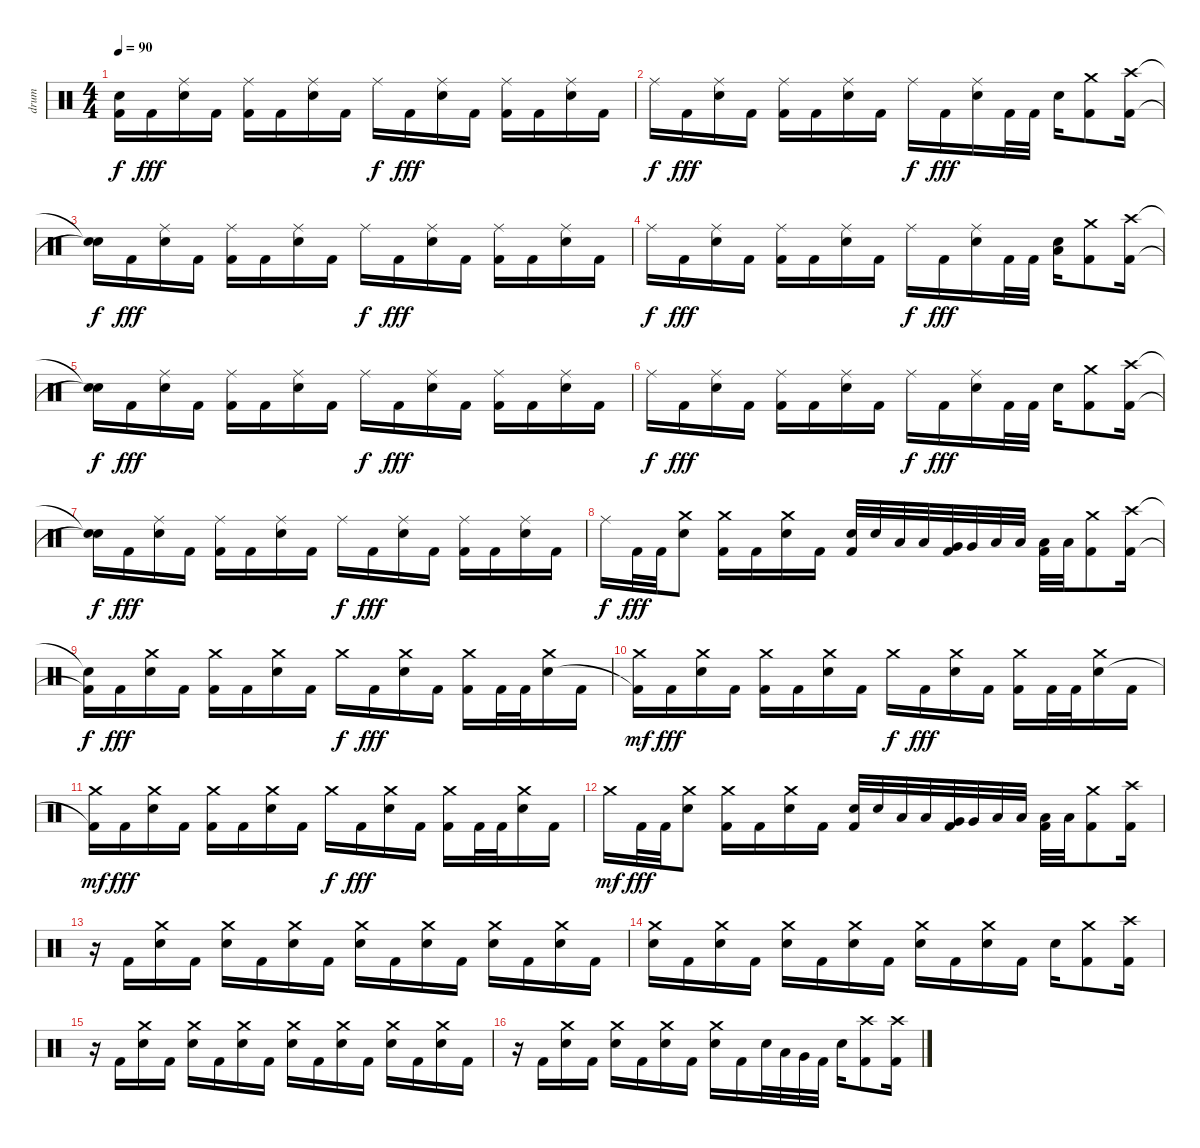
\track ("drum" "drum") {instrument percussion}
\staff {score}
\articulation defaults
\ts (4 4)
\tempo 90
\clef neutral
\ks c
("Snare (hit)"{t} "Kick (hit) 2"{t}).16{dy f} "Kick (hit) 2".16{dy fff} ("Ride (middle)" "Electric Snare (hit)").16 "Kick (hit) 2".16 ("Ride (middle)" "Kick (hit) 2").16 "Kick (hit) 2".16 ("Ride (middle)" "Electric Snare (hit)").16 "Kick (hit) 2".16 "Ride (middle)".16{dy f} "Kick (hit) 2".16{dy fff} ("Ride (middle)" "Electric Snare (hit)").16 "Kick (hit) 2".16 ("Ride (middle)" "Kick (hit) 2").16 "Kick (hit) 2".16 ("Ride (middle)" "Electric Snare (hit)").16 "Kick (hit) 2".16 |
"Ride (middle)".16{dy f} "Kick (hit) 2".16{dy fff} ("Ride (middle)" "Electric Snare (hit)").16 "Kick (hit) 2".16 ("Ride (middle)" "Kick (hit) 2").16 "Kick (hit) 2".16 ("Ride (middle)" "Electric Snare (hit)").16 "Kick (hit) 2".16 "Ride (middle)".16{dy f} "Kick (hit) 2".16{dy fff} ("Ride (middle)" "Electric Snare (hit)").16 "Kick (hit) 2".32 "Kick (hit) 2".32 "Electric Snare (hit)".16 ("Crash medium (hit)" "Kick (hit) 2").8 ("Crash high (hit)" "Kick (hit) 2").16 |
("Snare (hit)"{t} "Snare (hit)"{t}).16{dy f} "Kick (hit) 2".16{dy fff} ("Ride (middle)" "Electric Snare (hit)").16 "Kick (hit) 2".16 ("Ride (middle)" "Kick (hit) 2").16 "Kick (hit) 2".16 ("Ride (middle)" "Electric Snare (hit)").16 "Kick (hit) 2".16 "Ride (middle)".16{dy f} "Kick (hit) 2".16{dy fff} ("Ride (middle)" "Electric Snare (hit)").16 "Kick (hit) 2".16 ("Ride (middle)" "Kick (hit) 2").16 "Kick (hit) 2".16 ("Ride (middle)" "Electric Snare (hit)").16 "Kick (hit) 2".16 |
"Ride (middle)".16{dy f} "Kick (hit) 2".16{dy fff} ("Ride (middle)" "Electric Snare (hit)").16 "Kick (hit) 2".16 ("Ride (middle)" "Kick (hit) 2").16 "Kick (hit) 2".16 ("Ride (middle)" "Electric Snare (hit)").16 "Kick (hit) 2".16 "Ride (middle)".16{dy f} "Kick (hit) 2".16{dy fff} ("Ride (middle)" "Electric Snare (hit)").16 "Kick (hit) 2".32 "Kick (hit) 2".32 ("Electric Snare (hit)" "Low Floor Tom (hit)").16 ("Crash medium (hit)" "Kick (hit) 2").8 ("Crash high (hit)" "Kick (hit) 2").16 |
("Snare (hit)"{t} "Snare (hit)"{t}).16{dy f} "Kick (hit) 2".16{dy fff} ("Ride (middle)" "Electric Snare (hit)").16 "Kick (hit) 2".16 ("Ride (middle)" "Kick (hit) 2").16 "Kick (hit) 2".16 ("Ride (middle)" "Electric Snare (hit)").16 "Kick (hit) 2".16 "Ride (middle)".16{dy f} "Kick (hit) 2".16{dy fff} ("Ride (middle)" "Electric Snare (hit)").16 "Kick (hit) 2".16 ("Ride (middle)" "Kick (hit) 2").16 "Kick (hit) 2".16 ("Ride (middle)" "Electric Snare (hit)").16 "Kick (hit) 2".16 |
"Ride (middle)".16{dy f} "Kick (hit) 2".16{dy fff} ("Ride (middle)" "Electric Snare (hit)").16 "Kick (hit) 2".16 ("Ride (middle)" "Kick (hit) 2").16 "Kick (hit) 2".16 ("Ride (middle)" "Electric Snare (hit)").16 "Kick (hit) 2".16 "Ride (middle)".16{dy f} "Kick (hit) 2".16{dy fff} ("Ride (middle)" "Electric Snare (hit)").16 "Kick (hit) 2".32 "Kick (hit) 2".32 "Electric Snare (hit)".16 ("Crash medium (hit)" "Kick (hit) 2").8 ("Crash high (hit)" "Kick (hit) 2").16 |
("Snare (hit)"{t} "Snare (hit)"{t}).16{dy f} "Kick (hit) 2".16{dy fff} ("Ride (middle)" "Electric Snare (hit)").16 "Kick (hit) 2".16 ("Ride (middle)" "Kick (hit) 2").16 "Kick (hit) 2".16 ("Ride (middle)" "Electric Snare (hit)").16 "Kick (hit) 2".16 "Ride (middle)".16{dy f} "Kick (hit) 2".16{dy fff} ("Ride (middle)" "Electric Snare (hit)").16 "Kick (hit) 2".16 ("Ride (middle)" "Kick (hit) 2").16 "Kick (hit) 2".16 ("Ride (middle)" "Electric Snare (hit)").16 "Kick (hit) 2".16 |
"Ride (middle)".16{dy f} "Kick (hit) 2".32{dy fff} "Kick (hit) 2".32 ("Crash medium (hit)" "Electric Snare (hit)").8 ("Crash medium (hit)" "Kick (hit) 2").16 "Kick (hit) 2".16 ("Crash medium (hit)" "Electric Snare (hit)").16 "Kick (hit) 2".16 ("Electric Snare (hit)" "Kick (hit) 2").32 "Electric Snare (hit)".32 "Low Tom (hit)".32 "Low Tom (hit)".32 ("Very Low Tom (hit)" "Kick (hit) 2").32 "Very Low Tom (hit)".32 "Low Floor Tom (hit)".32 "Low Floor Tom (hit)".32 ("Low Floor Tom (hit)" "Kick (hit) 2").32 "Low Floor Tom (hit)".32 ("Crash medium (hit)" "Kick (hit) 2").8 ("Crash high (hit)" "Kick (hit) 2").16 |
("Snare (hit)"{t} "Kick (hit) 2"{t}).16{dy f} "Kick (hit) 2".16{dy fff} ("Crash medium (hit)" "Electric Snare (hit)").16 "Kick (hit) 2".16 ("Crash medium (hit)" "Kick (hit) 2").16 "Kick (hit) 2".16 ("Crash medium (hit)" "Electric Snare (hit)").16 "Kick (hit) 2".16 "Crash medium (hit)".16{dy f} "Kick (hit) 2".16{dy fff} ("Crash medium (hit)" "Electric Snare (hit)").16 "Kick (hit) 2".16 ("Crash medium (hit)" "Kick (hit) 2").16 "Kick (hit) 2".32 "Kick (hit) 2".32 ("Crash medium (hit)" "Electric Snare (hit)").16 "Kick (hit) 2".16 |
("Crash medium (hit)" "Kick (hit) 2"{t}).16{dy mf} "Kick (hit) 2".16{dy fff} ("Crash medium (hit)" "Electric Snare (hit)").16 "Kick (hit) 2".16 ("Crash medium (hit)" "Kick (hit) 2").16 "Kick (hit) 2".16 ("Crash medium (hit)" "Electric Snare (hit)").16 "Kick (hit) 2".16 "Crash medium (hit)".16{dy f} "Kick (hit) 2".16{dy fff} ("Crash medium (hit)" "Electric Snare (hit)").16 "Kick (hit) 2".16 ("Crash medium (hit)" "Kick (hit) 2").16 "Kick (hit) 2".32 "Kick (hit) 2".32 ("Crash medium (hit)" "Electric Snare (hit)").16 "Kick (hit) 2".16 |
("Crash medium (hit)" "Kick (hit) 2"{t}).16{dy mf} "Kick (hit) 2".16{dy fff} ("Crash medium (hit)" "Electric Snare (hit)").16 "Kick (hit) 2".16 ("Crash medium (hit)" "Kick (hit) 2").16 "Kick (hit) 2".16 ("Crash medium (hit)" "Electric Snare (hit)").16 "Kick (hit) 2".16 "Crash medium (hit)".16{dy f} "Kick (hit) 2".16{dy fff} ("Crash medium (hit)" "Electric Snare (hit)").16 "Kick (hit) 2".16 ("Crash medium (hit)" "Kick (hit) 2").16 "Kick (hit) 2".32 "Kick (hit) 2".32 ("Crash medium (hit)" "Electric Snare (hit)").16 "Kick (hit) 2".16 |
"Crash medium (hit)".16{dy mf} "Kick (hit) 2".32{dy fff} "Kick (hit) 2".32 ("Crash medium (hit)" "Electric Snare (hit)").8 ("Crash medium (hit)" "Kick (hit) 2").16 "Kick (hit) 2".16 ("Crash medium (hit)" "Electric Snare (hit)").16 "Kick (hit) 2".16 ("Electric Snare (hit)" "Kick (hit) 2").32 "Electric Snare (hit)".32 "Low Tom (hit)".32 "Low Tom (hit)".32 ("Very Low Tom (hit)" "Kick (hit) 2").32 "Very Low Tom (hit)".32 "Low Floor Tom (hit)".32 "Low Floor Tom (hit)".32 ("Low Floor Tom (hit)" "Kick (hit) 2").32 "Low Floor Tom (hit)".32 ("Crash medium (hit)" "Kick (hit) 2").8 ("Crash high (hit)" "Kick (hit) 2").16 |
r.16 "Kick (hit) 2".16 ("Crash medium (hit)" "Electric Snare (hit)").16 "Kick (hit) 2".16 ("Crash medium (hit)" "Electric Snare (hit)").16 "Kick (hit) 2".16 ("Crash medium (hit)" "Electric Snare (hit)").16 "Kick (hit) 2".16 ("Crash medium (hit)" "Electric Snare (hit)").16 "Kick (hit) 2".16 ("Crash medium (hit)" "Electric Snare (hit)").16 "Kick (hit) 2".16 ("Crash medium (hit)" "Electric Snare (hit)").16 "Kick (hit) 2".16 ("Crash medium (hit)" "Electric Snare (hit)").16 "Kick (hit) 2".16 |
("Crash medium (hit)" "Electric Snare (hit)").16 "Kick (hit) 2".16 ("Crash medium (hit)" "Electric Snare (hit)").16 "Kick (hit) 2".16 ("Crash medium (hit)" "Electric Snare (hit)").16 "Kick (hit) 2".16 ("Crash medium (hit)" "Electric Snare (hit)").16 "Kick (hit) 2".16 ("Crash medium (hit)" "Electric Snare (hit)").16 "Kick (hit) 2".16 ("Crash medium (hit)" "Electric Snare (hit)").16 "Kick (hit) 2".16 "Electric Snare (hit)".16 ("Crash medium (hit)" "Kick (hit) 2").8 ("Crash high (hit)" "Kick (hit) 2").16 |
r.16 "Kick (hit) 2".16 ("Crash medium (hit)" "Electric Snare (hit)").16 "Kick (hit) 2".16 ("Crash medium (hit)" "Electric Snare (hit)").16 "Kick (hit) 2".16 ("Crash medium (hit)" "Electric Snare (hit)").16 "Kick (hit) 2".16 ("Crash medium (hit)" "Electric Snare (hit)").16 "Kick (hit) 2".16 ("Crash medium (hit)" "Electric Snare (hit)").16 "Kick (hit) 2".16 ("Crash medium (hit)" "Electric Snare (hit)").16 "Kick (hit) 2".16 ("Crash medium (hit)" "Electric Snare (hit)").16 "Kick (hit) 2".16 |
r.16 "Kick (hit) 2".16 ("Crash medium (hit)" "Electric Snare (hit)").16 "Kick (hit) 2".16 ("Crash medium (hit)" "Electric Snare (hit)").16 "Kick (hit) 2".16 ("Crash medium (hit)" "Electric Snare (hit)").16 "Kick (hit) 2".16 ("Crash medium (hit)" "Electric Snare (hit)").16 "Kick (hit) 2".16 "Electric Snare (hit)".32 "Low Tom (hit)".32 "Very Low Tom (hit)".32 "Kick (hit) 2".32 "Electric Snare (hit)".16 ("Crash high (hit)" "Kick (hit) 2").8 ("Crash high (hit)" "Kick (hit) 2").16
